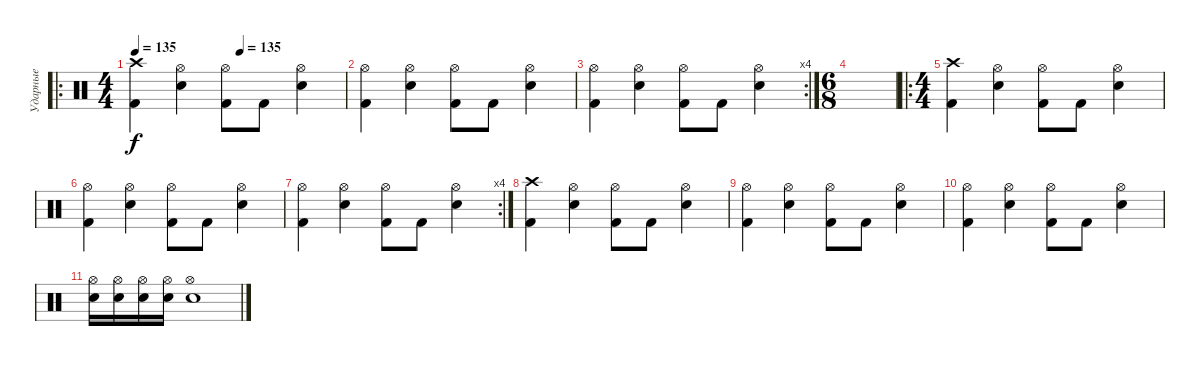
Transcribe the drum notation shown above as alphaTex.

\track ("Ударные" "Ударные") {instrument percussion}
\staff {score}
\articulation defaults
\ro
\ts (4 4)
\tempo 135
\tempo (135 0.5)
\clef neutral
\ks c
("Crash high (hit)" "Kick (hit) 2").4{dy f} ("Hi-Hat (open)" "Snare (hit) 2").4 ("Hi-Hat (open)" "Kick (hit) 2").8 "Kick (hit) 2".8 ("Hi-Hat (open)" "Snare (hit) 2").4 |
("Hi-Hat (open)" "Kick (hit) 2").4 ("Hi-Hat (open)" "Snare (hit) 2").4 ("Hi-Hat (open)" "Kick (hit) 2").8 "Kick (hit) 2".8 ("Hi-Hat (open)" "Snare (hit) 2").4 |
\rc 4
("Hi-Hat (open)" "Kick (hit) 2").4 ("Hi-Hat (open)" "Snare (hit) 2").4 ("Hi-Hat (open)" "Kick (hit) 2").8 "Kick (hit) 2".8 ("Hi-Hat (open)" "Snare (hit) 2").4 |
\ts (6 8)
|
\ro
\ts (4 4)
("Crash high (hit)" "Kick (hit) 2").4 ("Hi-Hat (open)" "Snare (hit) 2").4 ("Hi-Hat (open)" "Kick (hit) 2").8 "Kick (hit) 2".8 ("Hi-Hat (open)" "Snare (hit) 2").4 |
("Hi-Hat (open)" "Kick (hit) 2").4 ("Hi-Hat (open)" "Snare (hit) 2").4 ("Hi-Hat (open)" "Kick (hit) 2").8 "Kick (hit) 2".8 ("Hi-Hat (open)" "Snare (hit) 2").4 |
\rc 4
("Hi-Hat (open)" "Kick (hit) 2").4 ("Hi-Hat (open)" "Snare (hit) 2").4 ("Hi-Hat (open)" "Kick (hit) 2").8 "Kick (hit) 2".8 ("Hi-Hat (open)" "Snare (hit) 2").4 |
("Crash high (hit)" "Kick (hit) 2").4 ("Hi-Hat (open)" "Snare (hit) 2").4 ("Hi-Hat (open)" "Kick (hit) 2").8 "Kick (hit) 2".8 ("Hi-Hat (open)" "Snare (hit) 2").4 |
("Hi-Hat (open)" "Kick (hit) 2").4 ("Hi-Hat (open)" "Snare (hit) 2").4 ("Hi-Hat (open)" "Kick (hit) 2").8 "Kick (hit) 2".8 ("Hi-Hat (open)" "Snare (hit) 2").4 |
("Hi-Hat (open)" "Kick (hit) 2").4 ("Hi-Hat (open)" "Snare (hit) 2").4 ("Hi-Hat (open)" "Kick (hit) 2").8 "Kick (hit) 2".8 ("Hi-Hat (open)" "Snare (hit) 2").4 |
("Hi-Hat (open)" "Snare (hit) 2").16 ("Hi-Hat (open)" "Snare (hit) 2").16 ("Hi-Hat (open)" "Snare (hit) 2").16 ("Hi-Hat (open)" "Snare (hit) 2").16 ("Hi-Hat (open)" "Snare (hit) 2").1
